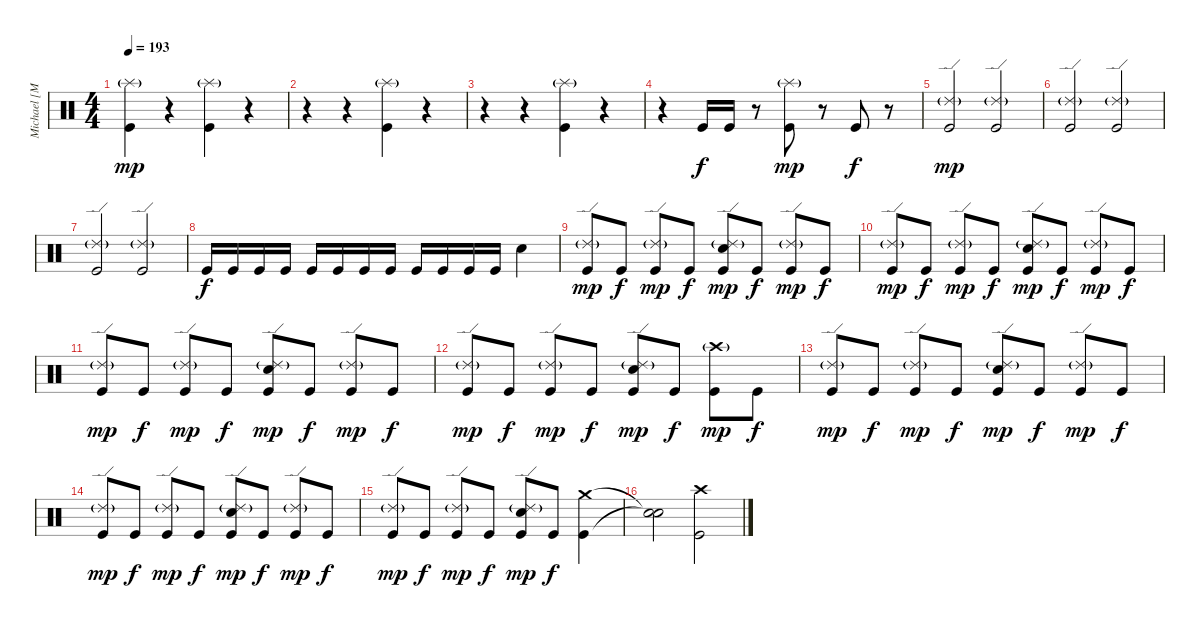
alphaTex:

\track ("Michael [Moose] Thomas" "Michael [M") {instrument percussion}
\staff {score}
\articulation defaults
\ts (4 4)
\tempo 193
\clef neutral
\ks c
("Splash (hit)"{g} "Kick (hit)").4{dy mp} r.4 ("Splash (hit)"{g} "Kick (hit)").4 r.4 |
r.4 r.4 ("Splash (hit)"{g} "Kick (hit)").4 r.4 |
r.4 r.4 ("Splash (hit)"{g} "Kick (hit)").4 r.4 |
r.4 "Kick (hit)".16{dy f} "Kick (hit)".16 r.8 ("Splash (hit)"{g} "Kick (hit)").8{dy mp} r.8 "Kick (hit)".8{dy f} r.8 |
("Ride (edge) 2"{g} "Kick (hit)").2{dy mp} ("Ride (edge) 2"{g} "Kick (hit)").2 |
("Ride (edge) 2"{g} "Kick (hit)").2 ("Ride (edge) 2"{g} "Kick (hit)").2 |
("Ride (edge) 2"{g} "Kick (hit)").2 ("Ride (edge) 2"{g} "Kick (hit)").2 |
"Kick (hit)".16{dy f} "Kick (hit)".16 "Kick (hit)".16 "Kick (hit)".16 "Kick (hit)".16 "Kick (hit)".16 "Kick (hit)".16 "Kick (hit)".16 "Kick (hit)".16 "Kick (hit)".16 "Kick (hit)".16 "Kick (hit)".16 "Snare (hit) 2".4 |
("Ride (edge) 2"{g} "Kick (hit)").8{dy mp} "Kick (hit)".8{dy f} ("Ride (edge) 2"{g} "Kick (hit)").8{dy mp} "Kick (hit)".8{dy f} ("Ride (edge) 2"{g} "Snare (hit) 2" "Kick (hit)").8{dy mp} "Kick (hit)".8{dy f} ("Ride (edge) 2"{g} "Kick (hit)").8{dy mp} "Kick (hit)".8{dy f} |
("Ride (edge) 2"{g} "Kick (hit)").8{dy mp} "Kick (hit)".8{dy f} ("Ride (edge) 2"{g} "Kick (hit)").8{dy mp} "Kick (hit)".8{dy f} ("Ride (edge) 2"{g} "Snare (hit) 2" "Kick (hit)").8{dy mp} "Kick (hit)".8{dy f} ("Ride (edge) 2"{g} "Kick (hit)").8{dy mp} "Kick (hit)".8{dy f} |
("Ride (edge) 2"{g} "Kick (hit)").8{dy mp} "Kick (hit)".8{dy f} ("Ride (edge) 2"{g} "Kick (hit)").8{dy mp} "Kick (hit)".8{dy f} ("Ride (edge) 2"{g} "Snare (hit) 2" "Kick (hit)").8{dy mp} "Kick (hit)".8{dy f} ("Ride (edge) 2"{g} "Kick (hit)").8{dy mp} "Kick (hit)".8{dy f} |
("Ride (edge) 2"{g} "Kick (hit)").8{dy mp} "Kick (hit)".8{dy f} ("Ride (edge) 2"{g} "Kick (hit)").8{dy mp} "Kick (hit)".8{dy f} ("Ride (edge) 2"{g} "Snare (hit) 2" "Kick (hit)").8{dy mp} "Kick (hit)".8{dy f} ("Crash high (hit)"{g} "Kick (hit)").8{dy mp} "Kick (hit)".8{dy f} |
("Ride (edge) 2"{g} "Kick (hit)").8{dy mp} "Kick (hit)".8{dy f} ("Ride (edge) 2"{g} "Kick (hit)").8{dy mp} "Kick (hit)".8{dy f} ("Ride (edge) 2"{g} "Snare (hit) 2" "Kick (hit)").8{dy mp} "Kick (hit)".8{dy f} ("Ride (edge) 2"{g} "Kick (hit)").8{dy mp} "Kick (hit)".8{dy f} |
("Ride (edge) 2"{g} "Kick (hit)").8{dy mp} "Kick (hit)".8{dy f} ("Ride (edge) 2"{g} "Kick (hit)").8{dy mp} "Kick (hit)".8{dy f} ("Ride (edge) 2"{g} "Snare (hit) 2" "Kick (hit)").8{dy mp} "Kick (hit)".8{dy f} ("Ride (edge) 2"{g} "Kick (hit)").8{dy mp} "Kick (hit)".8{dy f} |
("Ride (edge) 2"{g} "Kick (hit)").8{dy mp} "Kick (hit)".8{dy f} ("Ride (edge) 2"{g} "Kick (hit)").8{dy mp} "Kick (hit)".8{dy f} ("Ride (edge) 2"{g} "Snare (hit) 2" "Kick (hit)").8{dy mp} "Kick (hit)".8{dy f} ("Crash medium (hit)" "Kick (hit)").4 |
("Snare (hit)"{t} "Snare (hit)"{t}).2 ("Crash high (hit)" "Kick (hit)").2
